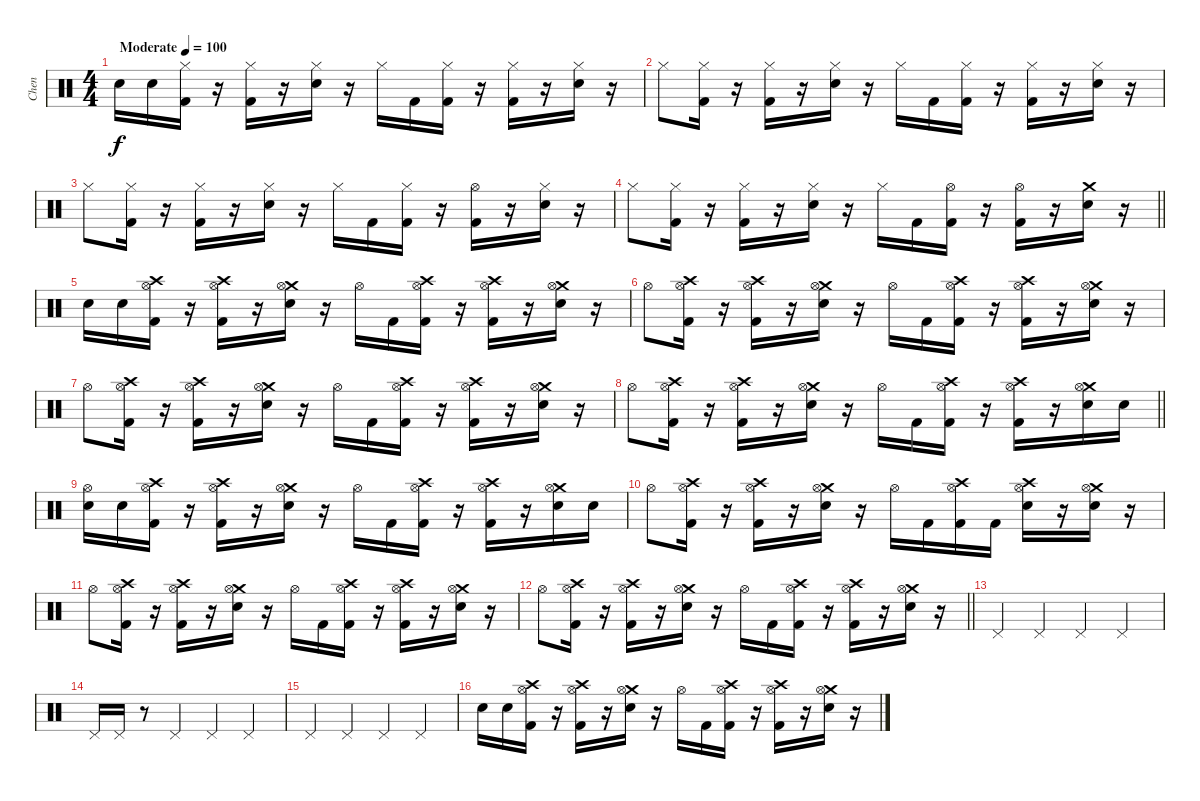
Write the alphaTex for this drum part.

\track ("Chen" "Chen") {instrument percussion}
\staff {score}
\articulation defaults
\ts (4 4)
\tempo (100 "Moderate")
\clef neutral
\ks c "Electric Snare (hit)".16{dy f} "Electric Snare (hit)".16
("Hi-Hat (closed)" "Kick (hit) 2").16 r.16 ("Hi-Hat (closed)" "Kick (hit) 2").16 r.16 ("Hi-Hat (closed)" "Electric Snare (hit)").16 r.16 "Hi-Hat (closed)".16 "Kick (hit) 2".16 ("Hi-Hat (closed)" "Kick (hit) 2").16 r.16 ("Hi-Hat (closed)" "Kick (hit) 2").16 r.16 ("Hi-Hat (closed)" "Electric Snare (hit)").16 r.16 |
"Hi-Hat (closed)".8 ("Hi-Hat (closed)" "Kick (hit) 2").16 r.16 ("Hi-Hat (closed)" "Kick (hit) 2").16 r.16 ("Hi-Hat (closed)" "Electric Snare (hit)").16 r.16 "Hi-Hat (closed)".16 "Kick (hit) 2".16 ("Hi-Hat (closed)" "Kick (hit) 2").16 r.16 ("Hi-Hat (closed)" "Kick (hit) 2").16 r.16 ("Hi-Hat (closed)" "Electric Snare (hit)").16 r.16 |
"Hi-Hat (closed)".8 ("Hi-Hat (closed)" "Kick (hit) 2").16 r.16 ("Hi-Hat (closed)" "Kick (hit) 2").16 r.16 ("Hi-Hat (closed)" "Electric Snare (hit)").16 r.16 "Hi-Hat (closed)".16 "Kick (hit) 2".16 ("Hi-Hat (closed)" "Kick (hit) 2").16 r.16 ("Hi-Hat (open)" "Kick (hit) 2").16 r.16 ("Hi-Hat (closed)" "Electric Snare (hit)").16 r.16 |
\barLineRight lightlight "Hi-Hat (closed)".8
("Hi-Hat (closed)" "Kick (hit) 2").16 r.16 ("Hi-Hat (closed)" "Kick (hit) 2").16 r.16 ("Hi-Hat (closed)" "Electric Snare (hit)").16 r.16 "Hi-Hat (closed)".16 "Kick (hit) 2".16 ("Hi-Hat (open)" "Kick (hit) 2").16 r.16 ("Hi-Hat (open)" "Kick (hit) 2").16 r.16 ("Crash medium (hit)" "Electric Snare (hit)").16 r.16 |
"Electric Snare (hit)".16 "Electric Snare (hit)".16 ("Crash high (hit)" "Hi-Hat (open)" "Kick (hit) 2").16 r.16 ("Crash high (hit)" "Hi-Hat (open)" "Kick (hit) 2").16 r.16 ("Crash medium (hit)" "Hi-Hat (open)" "Electric Snare (hit)").16 r.16 "Hi-Hat (open)".16 "Kick (hit) 2".16 ("Crash high (hit)" "Hi-Hat (open)" "Kick (hit) 2").16 r.16 ("Crash high (hit)" "Hi-Hat (open)" "Kick (hit) 2").16 r.16 ("Crash medium (hit)" "Hi-Hat (open)" "Electric Snare (hit)").16 r.16 |
"Hi-Hat (open)".8 ("Crash high (hit)" "Hi-Hat (open)" "Kick (hit) 2").16 r.16 ("Crash high (hit)" "Hi-Hat (open)" "Kick (hit) 2").16 r.16 ("Crash medium (hit)" "Hi-Hat (open)" "Electric Snare (hit)").16 r.16 "Hi-Hat (open)".16 "Kick (hit) 2".16 ("Crash high (hit)" "Hi-Hat (open)" "Kick (hit) 2").16 r.16 ("Crash high (hit)" "Hi-Hat (open)" "Kick (hit) 2").16 r.16 ("Crash medium (hit)" "Hi-Hat (open)" "Electric Snare (hit)").16 r.16 |
"Hi-Hat (open)".8 ("Crash high (hit)" "Hi-Hat (open)" "Kick (hit) 2").16 r.16 ("Crash high (hit)" "Hi-Hat (open)" "Kick (hit) 2").16 r.16 ("Crash medium (hit)" "Hi-Hat (open)" "Electric Snare (hit)").16 r.16 "Hi-Hat (open)".16 "Kick (hit) 2".16 ("Crash high (hit)" "Hi-Hat (open)" "Kick (hit) 2").16 r.16 ("Crash high (hit)" "Hi-Hat (open)" "Kick (hit) 2").16 r.16 ("Crash medium (hit)" "Hi-Hat (open)" "Electric Snare (hit)").16 r.16 |
\barLineRight lightlight "Hi-Hat (open)".8
("Crash high (hit)" "Hi-Hat (open)" "Kick (hit) 2").16 r.16 ("Crash high (hit)" "Hi-Hat (open)" "Kick (hit) 2").16 r.16 ("Crash medium (hit)" "Hi-Hat (open)" "Electric Snare (hit)").16 r.16 "Hi-Hat (open)".16 "Kick (hit) 2".16 ("Crash high (hit)" "Hi-Hat (open)" "Kick (hit) 2").16 r.16 ("Crash high (hit)" "Hi-Hat (open)" "Kick (hit) 2").16 r.16 ("Crash medium (hit)" "Hi-Hat (open)" "Electric Snare (hit)").16 "Electric Snare (hit)".16 |
("Hi-Hat (open)" "Electric Snare (hit)").16 "Electric Snare (hit)".16 ("Crash high (hit)" "Hi-Hat (open)" "Kick (hit) 2").16 r.16 ("Crash high (hit)" "Hi-Hat (open)" "Kick (hit) 2").16 r.16 ("Crash medium (hit)" "Hi-Hat (open)" "Electric Snare (hit)").16 r.16 "Hi-Hat (open)".16 "Kick (hit) 2".16 ("Crash high (hit)" "Hi-Hat (open)" "Kick (hit) 2").16 r.16 ("Crash high (hit)" "Hi-Hat (open)" "Kick (hit) 2").16 r.16 ("Crash medium (hit)" "Hi-Hat (open)" "Electric Snare (hit)").16 "Electric Snare (hit)".16 |
"Hi-Hat (open)".8 ("Crash high (hit)" "Hi-Hat (open)" "Kick (hit) 2").16 r.16 ("Crash high (hit)" "Hi-Hat (open)" "Kick (hit) 2").16 r.16 ("Crash medium (hit)" "Hi-Hat (open)" "Electric Snare (hit)").16 r.16 "Hi-Hat (open)".16 "Kick (hit) 2".16 ("Crash high (hit)" "Hi-Hat (open)" "Kick (hit) 2").16 "Kick (hit) 2".16 ("Crash high (hit)" "Hi-Hat (open)" "Electric Snare (hit)").16 r.16 ("Crash medium (hit)" "Hi-Hat (open)" "Electric Snare (hit)").16 r.16 |
"Hi-Hat (open)".8 ("Crash high (hit)" "Hi-Hat (open)" "Kick (hit) 2").16 r.16 ("Crash high (hit)" "Hi-Hat (open)" "Kick (hit) 2").16 r.16 ("Crash medium (hit)" "Hi-Hat (open)" "Electric Snare (hit)").16 r.16 "Hi-Hat (open)".16 "Kick (hit) 2".16 ("Crash high (hit)" "Hi-Hat (open)" "Kick (hit) 2").16 r.16 ("Crash high (hit)" "Hi-Hat (open)" "Kick (hit) 2").16 r.16 ("Crash medium (hit)" "Hi-Hat (open)" "Electric Snare (hit)").16 r.16 |
\barLineRight lightlight "Hi-Hat (open)".8
("Crash high (hit)" "Hi-Hat (open)" "Kick (hit) 2").16 r.16 ("Crash high (hit)" "Hi-Hat (open)" "Kick (hit) 2").16 r.16 ("Crash medium (hit)" "Hi-Hat (open)" "Electric Snare (hit)").16 r.16 "Hi-Hat (open)".16 "Kick (hit) 2".16 ("Crash high (hit)" "Hi-Hat (open)" "Kick (hit) 2").16 r.16 ("Crash high (hit)" "Hi-Hat (open)" "Kick (hit) 2").16 r.16 ("Crash medium (hit)" "Hi-Hat (open)" "Electric Snare (hit)").16 r.16 |
"Pedal Hi-Hat (hit)".4 "Pedal Hi-Hat (hit)".4 "Pedal Hi-Hat (hit)".4 "Pedal Hi-Hat (hit)".4 |
"Pedal Hi-Hat (hit)".16 "Pedal Hi-Hat (hit)".16 r.8 "Pedal Hi-Hat (hit)".4 "Pedal Hi-Hat (hit)".4 "Pedal Hi-Hat (hit)".4 |
"Pedal Hi-Hat (hit)".4 "Pedal Hi-Hat (hit)".4 "Pedal Hi-Hat (hit)".4 "Pedal Hi-Hat (hit)".4 |
"Electric Snare (hit)".16 "Electric Snare (hit)".16 ("Crash high (hit)" "Hi-Hat (open)" "Kick (hit) 2").16 r.16 ("Crash high (hit)" "Hi-Hat (open)" "Kick (hit) 2").16 r.16 ("Crash medium (hit)" "Hi-Hat (open)" "Electric Snare (hit)").16 r.16 "Hi-Hat (open)".16 "Kick (hit) 2".16 ("Crash high (hit)" "Hi-Hat (open)" "Kick (hit) 2").16 r.16 ("Crash high (hit)" "Hi-Hat (open)" "Kick (hit) 2").16 r.16 ("Crash medium (hit)" "Hi-Hat (open)" "Electric Snare (hit)").16 r.16
